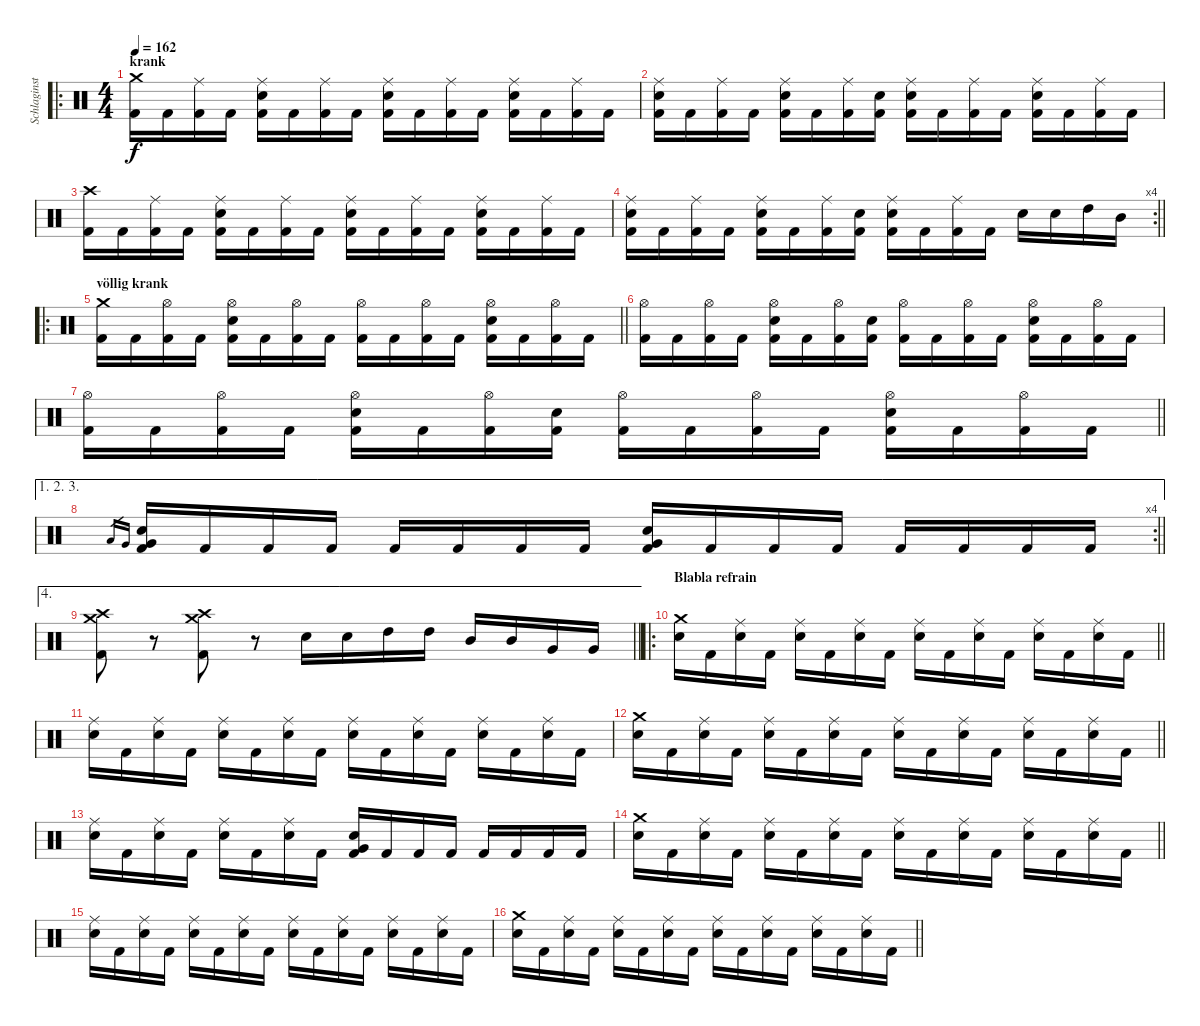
\track ("Schlaginstrumente - Auswahl" "Schlaginst") {instrument percussion}
\staff {score}
\articulation defaults
\ro
\ts (4 4)
\section ("" "krank")
\tempo 162
\clef neutral
\ks c
("Crash medium (hit)" "Kick (hit) 2").16{dy f} "Kick (hit) 2".16 ("Ride (middle)" "Kick (hit) 2").16 "Kick (hit) 2".16 ("Ride (middle)" "Electric Snare (hit)" "Kick (hit) 2").16 "Kick (hit) 2".16 ("Ride (middle)" "Kick (hit) 2").16 "Kick (hit) 2".16 ("Ride (middle)" "Electric Snare (hit)" "Kick (hit) 2").16 "Kick (hit) 2".16 ("Ride (middle)" "Kick (hit) 2").16 "Kick (hit) 2".16 ("Ride (middle)" "Electric Snare (hit)" "Kick (hit) 2").16 "Kick (hit) 2".16 ("Ride (middle)" "Kick (hit) 2").16 "Kick (hit) 2".16 |
("Ride (middle)" "Electric Snare (hit)" "Kick (hit) 2").16 "Kick (hit) 2".16 ("Ride (middle)" "Kick (hit) 2").16 "Kick (hit) 2".16 ("Ride (middle)" "Electric Snare (hit)" "Kick (hit) 2").16 "Kick (hit) 2".16 ("Ride (middle)" "Kick (hit) 2").16 ("Electric Snare (hit)" "Kick (hit) 2").16 ("Ride (middle)" "Electric Snare (hit)" "Kick (hit) 2").16 "Kick (hit) 2".16 ("Ride (middle)" "Kick (hit) 2").16 "Kick (hit) 2".16 ("Ride (middle)" "Electric Snare (hit)" "Kick (hit) 2").16 "Kick (hit) 2".16 ("Ride (middle)" "Kick (hit) 2").16 "Kick (hit) 2".16 |
("Crash high (hit)" "Kick (hit) 2").16 "Kick (hit) 2".16 ("Ride (middle)" "Kick (hit) 2").16 "Kick (hit) 2".16 ("Ride (middle)" "Electric Snare (hit)" "Kick (hit) 2").16 "Kick (hit) 2".16 ("Ride (middle)" "Kick (hit) 2").16 "Kick (hit) 2".16 ("Ride (middle)" "Electric Snare (hit)" "Kick (hit) 2").16 "Kick (hit) 2".16 ("Ride (middle)" "Kick (hit) 2").16 "Kick (hit) 2".16 ("Ride (middle)" "Electric Snare (hit)" "Kick (hit) 2").16 "Kick (hit) 2".16 ("Ride (middle)" "Kick (hit) 2").16 "Kick (hit) 2".16 |
\rc 4
\barLineRight lightlight
("Ride (middle)" "Electric Snare (hit)" "Kick (hit) 2").16 "Kick (hit) 2".16 ("Ride (middle)" "Kick (hit) 2").16 "Kick (hit) 2".16 ("Ride (middle)" "Electric Snare (hit)" "Kick (hit) 2").16 "Kick (hit) 2".16 ("Ride (middle)" "Kick (hit) 2").16 ("Electric Snare (hit)" "Kick (hit) 2").16 ("Ride (middle)" "Electric Snare (hit)" "Kick (hit) 2").16 "Kick (hit) 2".16 ("Ride (middle)" "Kick (hit) 2").16 "Kick (hit) 2".16 "Electric Snare (hit)".16 "Electric Snare (hit)".16 "High Tom (hit)".16 "Mid Tom (hit)".16 |
\ro
\section ("" "völlig krank")
\barLineRight lightlight
("Crash medium (hit)" "Kick (hit) 2").16 "Kick (hit) 2".16 ("Hi-Hat (open)" "Kick (hit) 2").16 "Kick (hit) 2".16 ("Hi-Hat (open)" "Electric Snare (hit)" "Kick (hit) 2").16 "Kick (hit) 2".16 ("Hi-Hat (open)" "Kick (hit) 2").16 "Kick (hit) 2".16 ("Hi-Hat (open)" "Kick (hit) 2").16 "Kick (hit) 2".16 ("Hi-Hat (open)" "Kick (hit) 2").16 "Kick (hit) 2".16 ("Hi-Hat (open)" "Electric Snare (hit)" "Kick (hit) 2").16 "Kick (hit) 2".16 ("Hi-Hat (open)" "Kick (hit) 2").16 "Kick (hit) 2".16 |
("Hi-Hat (open)" "Kick (hit) 2").16 "Kick (hit) 2".16 ("Hi-Hat (open)" "Kick (hit) 2").16 "Kick (hit) 2".16 ("Hi-Hat (open)" "Electric Snare (hit)" "Kick (hit) 2").16 "Kick (hit) 2".16 ("Hi-Hat (open)" "Kick (hit) 2").16 ("Electric Snare (hit)" "Kick (hit) 2").16 ("Hi-Hat (open)" "Kick (hit) 2").16 "Kick (hit) 2".16 ("Hi-Hat (open)" "Kick (hit) 2").16 "Kick (hit) 2".16 ("Hi-Hat (open)" "Electric Snare (hit)" "Kick (hit) 2").16 "Kick (hit) 2".16 ("Hi-Hat (open)" "Kick (hit) 2").16 "Kick (hit) 2".16 |
\barLineRight lightlight
("Hi-Hat (open)" "Kick (hit) 2").16 "Kick (hit) 2".16 ("Hi-Hat (open)" "Kick (hit) 2").16 "Kick (hit) 2".16 ("Hi-Hat (open)" "Electric Snare (hit)" "Kick (hit) 2").16 "Kick (hit) 2".16 ("Hi-Hat (open)" "Kick (hit) 2").16 ("Electric Snare (hit)" "Kick (hit) 2").16 ("Hi-Hat (open)" "Kick (hit) 2").16 "Kick (hit) 2".16 ("Hi-Hat (open)" "Kick (hit) 2").16 "Kick (hit) 2".16 ("Hi-Hat (open)" "Electric Snare (hit)" "Kick (hit) 2").16 "Kick (hit) 2".16 ("Hi-Hat (open)" "Kick (hit) 2").16 "Kick (hit) 2".16 |
\ae (1 2 3)
\rc 4
\barLineRight lightlight "Low Tom (hit)".16{gr} "Very Low Tom (hit)".16{gr}
("Very Low Tom (hit)" "Electric Snare (hit)" "Kick (hit) 2").16 "Kick (hit) 2".16 "Kick (hit) 2".16 "Kick (hit) 2".16 "Kick (hit) 2".16 "Kick (hit) 2".16 "Kick (hit) 2".16 "Kick (hit) 2".16 ("Very Low Tom (hit)" "Electric Snare (hit)" "Kick (hit) 2").16 "Kick (hit) 2".16 "Kick (hit) 2".16 "Kick (hit) 2".16 "Kick (hit) 2".16 "Kick (hit) 2".16 "Kick (hit) 2".16 "Kick (hit) 2".16 |
\ae 4
\barLineRight lightlight
("Crash medium (hit)" "Crash high (hit)" "Kick (hit) 2").8 r.8 ("Crash medium (hit)" "Crash high (hit)" "Kick (hit) 2").8 r.8 "Electric Snare (hit)".16 "Electric Snare (hit)".16 "High Tom (hit)".16 "High Tom (hit)".16 "Mid Tom (hit)".16 "Mid Tom (hit)".16 "Very Low Tom (hit)".16 "Very Low Tom (hit)".16 |
\ro
\section ("" "Blabla refrain")
\barLineRight lightlight
("Crash medium (hit)" "Electric Snare (hit)").16 "Kick (hit) 2".16 ("Ride (middle)" "Electric Snare (hit)").16 "Kick (hit) 2".16 ("Ride (middle)" "Electric Snare (hit)").16 "Kick (hit) 2".16 ("Ride (middle)" "Electric Snare (hit)").16 "Kick (hit) 2".16 ("Ride (middle)" "Electric Snare (hit)").16 "Kick (hit) 2".16 ("Ride (middle)" "Electric Snare (hit)").16 "Kick (hit) 2".16 ("Ride (middle)" "Electric Snare (hit)").16 "Kick (hit) 2".16 ("Ride (middle)" "Electric Snare (hit)").16 "Kick (hit) 2".16 |
("Ride (middle)" "Electric Snare (hit)").16 "Kick (hit) 2".16 ("Ride (middle)" "Electric Snare (hit)").16 "Kick (hit) 2".16 ("Ride (middle)" "Electric Snare (hit)").16 "Kick (hit) 2".16 ("Ride (middle)" "Electric Snare (hit)").16 "Kick (hit) 2".16 ("Ride (middle)" "Electric Snare (hit)").16 "Kick (hit) 2".16 ("Ride (middle)" "Electric Snare (hit)").16 "Kick (hit) 2".16 ("Ride (middle)" "Electric Snare (hit)").16 "Kick (hit) 2".16 ("Ride (middle)" "Electric Snare (hit)").16 "Kick (hit) 2".16 |
\barLineRight lightlight
("Crash medium (hit)" "Electric Snare (hit)").16 "Kick (hit) 2".16 ("Ride (middle)" "Electric Snare (hit)").16 "Kick (hit) 2".16 ("Ride (middle)" "Electric Snare (hit)").16 "Kick (hit) 2".16 ("Ride (middle)" "Electric Snare (hit)").16 "Kick (hit) 2".16 ("Ride (middle)" "Electric Snare (hit)").16 "Kick (hit) 2".16 ("Ride (middle)" "Electric Snare (hit)").16 "Kick (hit) 2".16 ("Ride (middle)" "Electric Snare (hit)").16 "Kick (hit) 2".16 ("Ride (middle)" "Electric Snare (hit)").16 "Kick (hit) 2".16 |
("Ride (middle)" "Electric Snare (hit)").16 "Kick (hit) 2".16 ("Ride (middle)" "Electric Snare (hit)").16 "Kick (hit) 2".16 ("Ride (middle)" "Electric Snare (hit)").16 "Kick (hit) 2".16 ("Ride (middle)" "Electric Snare (hit)").16 "Kick (hit) 2".16 ("Very Low Tom (hit)" "Electric Snare (hit)" "Kick (hit) 2").16 "Kick (hit) 2".16 "Kick (hit) 2".16 "Kick (hit) 2".16 "Kick (hit) 2".16 "Kick (hit) 2".16 "Kick (hit) 2".16 "Kick (hit) 2".16 |
\barLineRight lightlight
("Crash medium (hit)" "Electric Snare (hit)").16 "Kick (hit) 2".16 ("Ride (middle)" "Electric Snare (hit)").16 "Kick (hit) 2".16 ("Ride (middle)" "Electric Snare (hit)").16 "Kick (hit) 2".16 ("Ride (middle)" "Electric Snare (hit)").16 "Kick (hit) 2".16 ("Ride (middle)" "Electric Snare (hit)").16 "Kick (hit) 2".16 ("Ride (middle)" "Electric Snare (hit)").16 "Kick (hit) 2".16 ("Ride (middle)" "Electric Snare (hit)").16 "Kick (hit) 2".16 ("Ride (middle)" "Electric Snare (hit)").16 "Kick (hit) 2".16 |
("Ride (middle)" "Electric Snare (hit)").16 "Kick (hit) 2".16 ("Ride (middle)" "Electric Snare (hit)").16 "Kick (hit) 2".16 ("Ride (middle)" "Electric Snare (hit)").16 "Kick (hit) 2".16 ("Ride (middle)" "Electric Snare (hit)").16 "Kick (hit) 2".16 ("Ride (middle)" "Electric Snare (hit)").16 "Kick (hit) 2".16 ("Ride (middle)" "Electric Snare (hit)").16 "Kick (hit) 2".16 ("Ride (middle)" "Electric Snare (hit)").16 "Kick (hit) 2".16 ("Ride (middle)" "Electric Snare (hit)").16 "Kick (hit) 2".16 |
\barLineRight lightlight
("Crash medium (hit)" "Electric Snare (hit)").16 "Kick (hit) 2".16 ("Ride (middle)" "Electric Snare (hit)").16 "Kick (hit) 2".16 ("Ride (middle)" "Electric Snare (hit)").16 "Kick (hit) 2".16 ("Ride (middle)" "Electric Snare (hit)").16 "Kick (hit) 2".16 ("Ride (middle)" "Electric Snare (hit)").16 "Kick (hit) 2".16 ("Ride (middle)" "Electric Snare (hit)").16 "Kick (hit) 2".16 ("Ride (middle)" "Electric Snare (hit)").16 "Kick (hit) 2".16 ("Ride (middle)" "Electric Snare (hit)").16 "Kick (hit) 2".16
